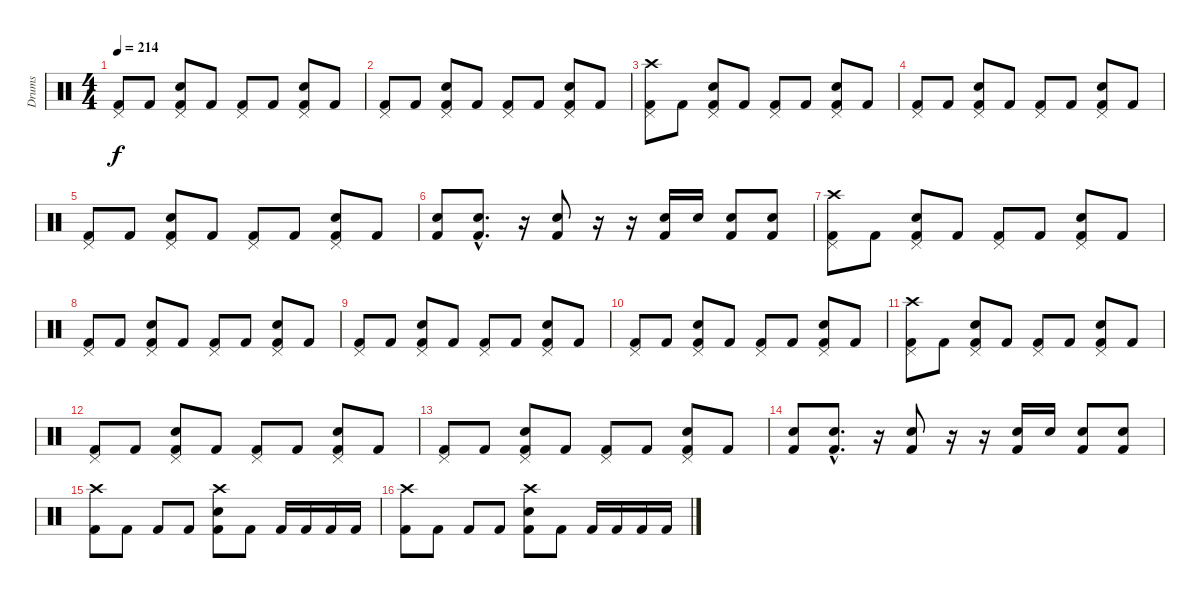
\track ("Drums" "Drums") {instrument percussion}
\staff {score}
\articulation defaults
\ts (4 4)
\tempo 214
\clef neutral
\ks c
("Pedal Hi-Hat (hit)" "Kick (hit) 2").8{dy f} "Kick (hit) 2".8 ("Pedal Hi-Hat (hit)" "Electric Snare (hit)" "Kick (hit) 2").8 "Kick (hit) 2".8 ("Pedal Hi-Hat (hit)" "Kick (hit) 2").8 "Kick (hit) 2".8 ("Pedal Hi-Hat (hit)" "Electric Snare (hit)" "Kick (hit) 2").8 "Kick (hit) 2".8 |
("Pedal Hi-Hat (hit)" "Kick (hit) 2").8 "Kick (hit) 2".8 ("Pedal Hi-Hat (hit)" "Electric Snare (hit)" "Kick (hit) 2").8 "Kick (hit) 2".8 ("Pedal Hi-Hat (hit)" "Kick (hit) 2").8 "Kick (hit) 2".8 ("Pedal Hi-Hat (hit)" "Electric Snare (hit)" "Kick (hit) 2").8 "Kick (hit) 2".8 |
("Pedal Hi-Hat (hit)" "Crash high (hit)" "Kick (hit) 2").8 "Kick (hit) 2".8 ("Pedal Hi-Hat (hit)" "Electric Snare (hit)" "Kick (hit) 2").8 "Kick (hit) 2".8 ("Pedal Hi-Hat (hit)" "Kick (hit) 2").8 "Kick (hit) 2".8 ("Pedal Hi-Hat (hit)" "Electric Snare (hit)" "Kick (hit) 2").8 "Kick (hit) 2".8 |
("Pedal Hi-Hat (hit)" "Kick (hit) 2").8 "Kick (hit) 2".8 ("Pedal Hi-Hat (hit)" "Electric Snare (hit)" "Kick (hit) 2").8 "Kick (hit) 2".8 ("Pedal Hi-Hat (hit)" "Kick (hit) 2").8 "Kick (hit) 2".8 ("Pedal Hi-Hat (hit)" "Electric Snare (hit)" "Kick (hit) 2").8 "Kick (hit) 2".8 |
("Pedal Hi-Hat (hit)" "Kick (hit) 2").8 "Kick (hit) 2".8 ("Pedal Hi-Hat (hit)" "Electric Snare (hit)" "Kick (hit) 2").8 "Kick (hit) 2".8 ("Pedal Hi-Hat (hit)" "Kick (hit) 2").8 "Kick (hit) 2".8 ("Pedal Hi-Hat (hit)" "Electric Snare (hit)" "Kick (hit) 2").8 "Kick (hit) 2".8 |
("Electric Snare (hit)" "Kick (hit) 2").8 ("Electric Snare (hit)"{hac} "Kick (hit) 2"{hac}).8{d} r.16 ("Electric Snare (hit)" "Kick (hit) 2").8 r.16 r.16 ("Electric Snare (hit)" "Kick (hit) 2").16 "Electric Snare (hit)".16 ("Electric Snare (hit)" "Kick (hit) 2").8 ("Electric Snare (hit)" "Kick (hit) 2").8 |
("Pedal Hi-Hat (hit)" "Crash high (hit)" "Kick (hit) 2").8 "Kick (hit) 2".8 ("Pedal Hi-Hat (hit)" "Electric Snare (hit)" "Kick (hit) 2").8 "Kick (hit) 2".8 ("Pedal Hi-Hat (hit)" "Kick (hit) 2").8 "Kick (hit) 2".8 ("Pedal Hi-Hat (hit)" "Electric Snare (hit)" "Kick (hit) 2").8 "Kick (hit) 2".8 |
("Pedal Hi-Hat (hit)" "Kick (hit) 2").8 "Kick (hit) 2".8 ("Pedal Hi-Hat (hit)" "Electric Snare (hit)" "Kick (hit) 2").8 "Kick (hit) 2".8 ("Pedal Hi-Hat (hit)" "Kick (hit) 2").8 "Kick (hit) 2".8 ("Pedal Hi-Hat (hit)" "Electric Snare (hit)" "Kick (hit) 2").8 "Kick (hit) 2".8 |
("Pedal Hi-Hat (hit)" "Kick (hit) 2").8 "Kick (hit) 2".8 ("Pedal Hi-Hat (hit)" "Electric Snare (hit)" "Kick (hit) 2").8 "Kick (hit) 2".8 ("Pedal Hi-Hat (hit)" "Kick (hit) 2").8 "Kick (hit) 2".8 ("Pedal Hi-Hat (hit)" "Electric Snare (hit)" "Kick (hit) 2").8 "Kick (hit) 2".8 |
("Pedal Hi-Hat (hit)" "Kick (hit) 2").8 "Kick (hit) 2".8 ("Pedal Hi-Hat (hit)" "Electric Snare (hit)" "Kick (hit) 2").8 "Kick (hit) 2".8 ("Pedal Hi-Hat (hit)" "Kick (hit) 2").8 "Kick (hit) 2".8 ("Pedal Hi-Hat (hit)" "Electric Snare (hit)" "Kick (hit) 2").8 "Kick (hit) 2".8 |
("Pedal Hi-Hat (hit)" "Crash high (hit)" "Kick (hit) 2").8 "Kick (hit) 2".8 ("Pedal Hi-Hat (hit)" "Electric Snare (hit)" "Kick (hit) 2").8 "Kick (hit) 2".8 ("Pedal Hi-Hat (hit)" "Kick (hit) 2").8 "Kick (hit) 2".8 ("Pedal Hi-Hat (hit)" "Electric Snare (hit)" "Kick (hit) 2").8 "Kick (hit) 2".8 |
("Pedal Hi-Hat (hit)" "Kick (hit) 2").8 "Kick (hit) 2".8 ("Pedal Hi-Hat (hit)" "Electric Snare (hit)" "Kick (hit) 2").8 "Kick (hit) 2".8 ("Pedal Hi-Hat (hit)" "Kick (hit) 2").8 "Kick (hit) 2".8 ("Pedal Hi-Hat (hit)" "Electric Snare (hit)" "Kick (hit) 2").8 "Kick (hit) 2".8 |
("Pedal Hi-Hat (hit)" "Kick (hit) 2").8 "Kick (hit) 2".8 ("Pedal Hi-Hat (hit)" "Electric Snare (hit)" "Kick (hit) 2").8 "Kick (hit) 2".8 ("Pedal Hi-Hat (hit)" "Kick (hit) 2").8 "Kick (hit) 2".8 ("Pedal Hi-Hat (hit)" "Electric Snare (hit)" "Kick (hit) 2").8 "Kick (hit) 2".8 |
("Electric Snare (hit)" "Kick (hit) 2").8 ("Electric Snare (hit)"{hac} "Kick (hit) 2"{hac}).8{d} r.16 ("Electric Snare (hit)" "Kick (hit) 2").8 r.16 r.16 ("Electric Snare (hit)" "Kick (hit) 2").16 "Electric Snare (hit)".16 ("Electric Snare (hit)" "Kick (hit) 2").8 ("Electric Snare (hit)" "Kick (hit) 2").8 |
("Crash high (hit)" "Kick (hit) 2").8 "Kick (hit) 2".8 "Kick (hit) 2".8 "Kick (hit) 2".8 ("Crash high (hit)" "Electric Snare (hit)" "Kick (hit) 2").8 "Kick (hit) 2".8 "Kick (hit) 2".16 "Kick (hit) 2".16 "Kick (hit) 2".16 "Kick (hit) 2".16 |
("Crash high (hit)" "Kick (hit) 2").8 "Kick (hit) 2".8 "Kick (hit) 2".8 "Kick (hit) 2".8 ("Crash high (hit)" "Electric Snare (hit)" "Kick (hit) 2").8 "Kick (hit) 2".8 "Kick (hit) 2".16 "Kick (hit) 2".16 "Kick (hit) 2".16 "Kick (hit) 2".16
